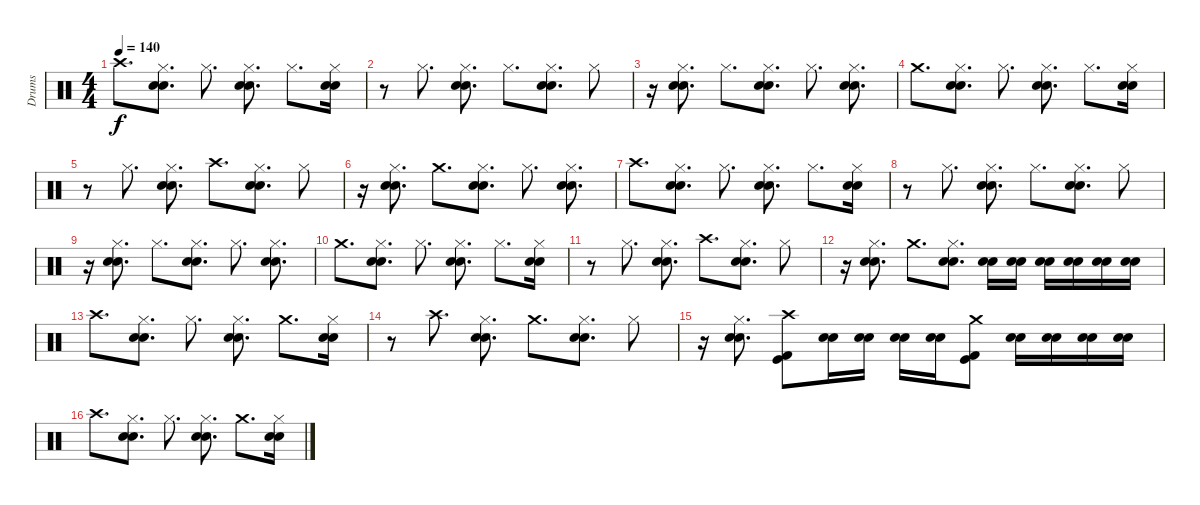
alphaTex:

\track ("Drums" "Drums") {instrument percussion}
\staff {score}
\articulation defaults
\ts (4 4)
\tempo 140
\clef neutral
\ks c "Crash high (hit)".8{d dy f}
("Hi-Hat (closed)" "Electric Snare (hit)" "Snare (hit) 2").8{d} "Hi-Hat (closed)".8{d} ("Hi-Hat (closed)" "Electric Snare (hit)" "Snare (hit) 2").8{d} "Hi-Hat (closed)".8{d} ("Hi-Hat (closed)" "Electric Snare (hit)" "Snare (hit) 2").16 |
r.8 "Hi-Hat (closed)".8{d} ("Hi-Hat (closed)" "Electric Snare (hit)" "Snare (hit) 2").8{d} "Hi-Hat (closed)".8{d} ("Hi-Hat (closed)" "Electric Snare (hit)" "Snare (hit) 2").8{d} "Hi-Hat (closed)".8 |
r.16 ("Hi-Hat (closed)" "Electric Snare (hit)" "Snare (hit) 2").8{d} "Hi-Hat (closed)".8{d} ("Hi-Hat (closed)" "Electric Snare (hit)" "Snare (hit) 2").8{d} "Hi-Hat (closed)".8{d} ("Hi-Hat (closed)" "Electric Snare (hit)" "Snare (hit) 2").8{d} |
"Crash medium (hit)".8{d} ("Hi-Hat (closed)" "Electric Snare (hit)" "Snare (hit) 2").8{d} "Hi-Hat (closed)".8{d} ("Hi-Hat (closed)" "Electric Snare (hit)" "Snare (hit) 2").8{d} "Hi-Hat (closed)".8{d} ("Hi-Hat (closed)" "Electric Snare (hit)" "Snare (hit) 2").16 |
r.8 "Hi-Hat (closed)".8{d} ("Hi-Hat (closed)" "Electric Snare (hit)" "Snare (hit) 2").8{d} "Crash high (hit)".8{d} ("Hi-Hat (closed)" "Electric Snare (hit)" "Snare (hit) 2").8{d} "Hi-Hat (closed)".8 |
r.16 ("Hi-Hat (closed)" "Electric Snare (hit)" "Snare (hit) 2").8{d} "Crash medium (hit)".8{d} ("Hi-Hat (closed)" "Electric Snare (hit)" "Snare (hit) 2").8{d} "Hi-Hat (closed)".8{d} ("Hi-Hat (closed)" "Electric Snare (hit)" "Snare (hit) 2").8{d} |
"Crash high (hit)".8{d} ("Hi-Hat (closed)" "Electric Snare (hit)" "Snare (hit) 2").8{d} "Hi-Hat (closed)".8{d} ("Hi-Hat (closed)" "Electric Snare (hit)" "Snare (hit) 2").8{d} "Hi-Hat (closed)".8{d} ("Hi-Hat (closed)" "Electric Snare (hit)" "Snare (hit) 2").16 |
r.8 "Hi-Hat (closed)".8{d} ("Hi-Hat (closed)" "Electric Snare (hit)" "Snare (hit) 2").8{d} "Hi-Hat (closed)".8{d} ("Hi-Hat (closed)" "Electric Snare (hit)" "Snare (hit) 2").8{d} "Hi-Hat (closed)".8 |
r.16 ("Hi-Hat (closed)" "Electric Snare (hit)" "Snare (hit) 2").8{d} "Hi-Hat (closed)".8{d} ("Hi-Hat (closed)" "Electric Snare (hit)" "Snare (hit) 2").8{d} "Hi-Hat (closed)".8{d} ("Hi-Hat (closed)" "Electric Snare (hit)" "Snare (hit) 2").8{d} |
"Crash medium (hit)".8{d} ("Hi-Hat (closed)" "Electric Snare (hit)" "Snare (hit) 2").8{d} "Hi-Hat (closed)".8{d} ("Hi-Hat (closed)" "Electric Snare (hit)" "Snare (hit) 2").8{d} "Hi-Hat (closed)".8{d} ("Hi-Hat (closed)" "Electric Snare (hit)" "Snare (hit) 2").16 |
r.8 "Hi-Hat (closed)".8{d} ("Hi-Hat (closed)" "Electric Snare (hit)" "Snare (hit) 2").8{d} "Crash high (hit)".8{d} ("Hi-Hat (closed)" "Electric Snare (hit)" "Snare (hit) 2").8{d} "Hi-Hat (closed)".8 |
r.16 ("Hi-Hat (closed)" "Electric Snare (hit)" "Snare (hit) 2").8{d} "Crash medium (hit)".8{d} ("Hi-Hat (closed)" "Electric Snare (hit)" "Snare (hit) 2").8{d} ("Electric Snare (hit)" "Snare (hit) 2").16 ("Electric Snare (hit)" "Snare (hit) 2").16 ("Electric Snare (hit)" "Snare (hit) 2").16 ("Electric Snare (hit)" "Snare (hit) 2").16 ("Electric Snare (hit)" "Snare (hit) 2").16 ("Electric Snare (hit)" "Snare (hit) 2").16 |
"Crash high (hit)".8{d} ("Hi-Hat (closed)" "Electric Snare (hit)" "Snare (hit) 2").8{d} "Hi-Hat (closed)".8{d} ("Hi-Hat (closed)" "Electric Snare (hit)" "Snare (hit) 2").8{d} "Crash medium (hit)".8{d} ("Hi-Hat (closed)" "Electric Snare (hit)" "Snare (hit) 2").16 |
r.8 "Crash high (hit)".8{d} ("Hi-Hat (closed)" "Electric Snare (hit)" "Snare (hit) 2").8{d} "Crash medium (hit)".8{d} ("Hi-Hat (closed)" "Electric Snare (hit)" "Snare (hit) 2").8{d} "Hi-Hat (closed)".8 |
r.16 ("Hi-Hat (closed)" "Electric Snare (hit)" "Snare (hit) 2").8{d} ("Crash high (hit)" "Kick (hit) 2" "Kick (hit)").8 ("Electric Snare (hit)" "Snare (hit) 2").16 ("Electric Snare (hit)" "Snare (hit) 2").16 ("Electric Snare (hit)" "Snare (hit) 2").16 ("Electric Snare (hit)" "Snare (hit) 2").16 ("Crash medium (hit)" "Kick (hit) 2" "Kick (hit)").8 ("Electric Snare (hit)" "Snare (hit) 2").16 ("Electric Snare (hit)" "Snare (hit) 2").16 ("Electric Snare (hit)" "Snare (hit) 2").16 ("Electric Snare (hit)" "Snare (hit) 2").16 |
"Crash high (hit)".8{d} ("Hi-Hat (closed)" "Electric Snare (hit)" "Snare (hit) 2").8{d} "Hi-Hat (closed)".8{d} ("Hi-Hat (closed)" "Electric Snare (hit)" "Snare (hit) 2").8{d} "Crash medium (hit)".8{d} ("Hi-Hat (closed)" "Electric Snare (hit)" "Snare (hit) 2").16
